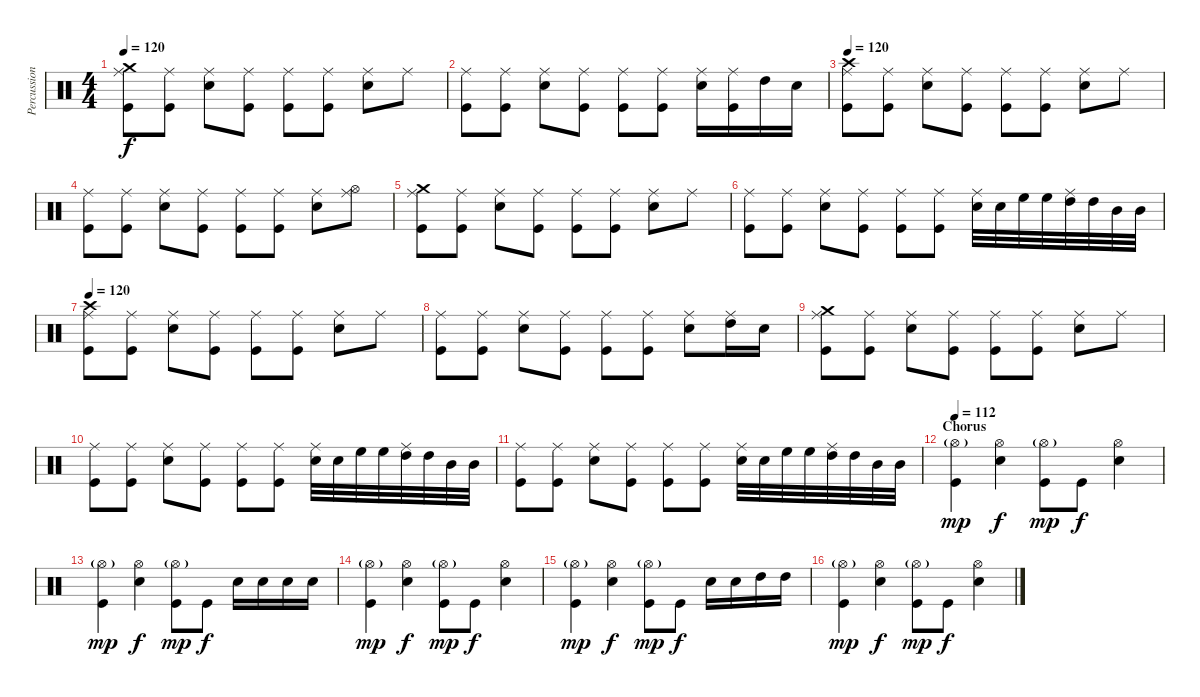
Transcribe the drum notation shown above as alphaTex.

\track ("Percussion" "Percussion") {instrument percussion}
\staff {score}
\articulation defaults
\ts (4 4)
\tempo 120
\clef neutral
\ks c
("Crash medium (hit)" "Ride (middle)" "Kick (hit)").8{dy f} ("Ride (middle)" "Kick (hit)").8 ("Ride (middle)" "Snare (hit) 2").8 ("Ride (middle)" "Kick (hit)").8 ("Ride (middle)" "Kick (hit)").8 ("Ride (middle)" "Kick (hit)").8 ("Ride (middle)" "Snare (hit) 2").8 "Ride (middle)".8 |
("Ride (middle)" "Kick (hit)").8 ("Ride (middle)" "Kick (hit)").8 ("Ride (middle)" "Snare (hit) 2").8 ("Ride (middle)" "Kick (hit)").8 ("Ride (middle)" "Kick (hit)").8 ("Ride (middle)" "Kick (hit)").8 ("Ride (middle)" "Snare (hit) 2").16 ("Ride (middle)" "Kick (hit)").16 "High Tom (hit)".16 "Snare (hit) 2".16 |
\tempo 120
("Crash high (hit)" "Ride (middle)" "Kick (hit)").8 ("Ride (middle)" "Kick (hit)").8 ("Ride (middle)" "Snare (hit) 2").8 ("Ride (middle)" "Kick (hit)").8 ("Ride (middle)" "Kick (hit)").8 ("Ride (middle)" "Kick (hit)").8 ("Ride (middle)" "Snare (hit) 2").8 "Ride (middle)".8 |
("Ride (middle)" "Kick (hit)").8 ("Ride (middle)" "Kick (hit)").8 ("Ride (middle)" "Snare (hit) 2").8 ("Ride (middle)" "Kick (hit)").8 ("Ride (middle)" "Kick (hit)").8 ("Ride (middle)" "Kick (hit)").8 ("Ride (middle)" "Snare (hit) 2").8 ("Ride (middle)" "Hi-Hat (open)").8 |
("Crash medium (hit)" "Ride (middle)" "Kick (hit)").8 ("Ride (middle)" "Kick (hit)").8 ("Ride (middle)" "Snare (hit) 2").8 ("Ride (middle)" "Kick (hit)").8 ("Ride (middle)" "Kick (hit)").8 ("Ride (middle)" "Kick (hit)").8 ("Ride (middle)" "Snare (hit) 2").8 "Ride (middle)".8 |
("Ride (middle)" "Kick (hit)").8 ("Ride (middle)" "Kick (hit)").8 ("Ride (middle)" "Snare (hit) 2").8 ("Ride (middle)" "Kick (hit)").8 ("Ride (middle)" "Kick (hit)").8 ("Ride (middle)" "Kick (hit)").8 ("Ride (middle)" "Snare (hit) 2").32 "Snare (hit) 2".32 "High Floor Tom (hit)".32 "High Floor Tom (hit)".32 ("Ride (middle)" "High Tom (hit)").32 "High Tom (hit)".32 "Mid Tom (hit)".32 "Mid Tom (hit)".32 |
\tempo 120
("Crash high (hit)" "Ride (middle)" "Kick (hit)").8 ("Ride (middle)" "Kick (hit)").8 ("Ride (middle)" "Snare (hit) 2").8 ("Ride (middle)" "Kick (hit)").8 ("Ride (middle)" "Kick (hit)").8 ("Ride (middle)" "Kick (hit)").8 ("Ride (middle)" "Snare (hit) 2").8 "Ride (middle)".8 |
("Ride (middle)" "Kick (hit)").8 ("Ride (middle)" "Kick (hit)").8 ("Ride (middle)" "Snare (hit) 2").8 ("Ride (middle)" "Kick (hit)").8 ("Ride (middle)" "Kick (hit)").8 ("Ride (middle)" "Kick (hit)").8 ("Ride (middle)" "Snare (hit) 2").8 ("Ride (middle)" "High Tom (hit)").16 "Snare (hit) 2".16 |
("Crash medium (hit)" "Ride (middle)" "Kick (hit)").8 ("Ride (middle)" "Kick (hit)").8 ("Ride (middle)" "Snare (hit) 2").8 ("Ride (middle)" "Kick (hit)").8 ("Ride (middle)" "Kick (hit)").8 ("Ride (middle)" "Kick (hit)").8 ("Ride (middle)" "Snare (hit) 2").8 "Ride (middle)".8 |
("Ride (middle)" "Kick (hit)").8 ("Ride (middle)" "Kick (hit)").8 ("Ride (middle)" "Snare (hit) 2").8 ("Ride (middle)" "Kick (hit)").8 ("Ride (middle)" "Kick (hit)").8 ("Ride (middle)" "Kick (hit)").8 ("Ride (middle)" "Snare (hit) 2").32 "Snare (hit) 2".32 "High Floor Tom (hit)".32 "High Floor Tom (hit)".32 ("Ride (middle)" "High Tom (hit)").32 "High Tom (hit)".32 "Mid Tom (hit)".32 "Mid Tom (hit)".32 |
("Ride (middle)" "Kick (hit)").8 ("Ride (middle)" "Kick (hit)").8 ("Ride (middle)" "Snare (hit) 2").8 ("Ride (middle)" "Kick (hit)").8 ("Ride (middle)" "Kick (hit)").8 ("Ride (middle)" "Kick (hit)").8 ("Ride (middle)" "Snare (hit) 2").32 "Snare (hit) 2".32 "High Floor Tom (hit)".32 "High Floor Tom (hit)".32 ("Ride (middle)" "High Tom (hit)").32 "High Tom (hit)".32 "Mid Tom (hit)".32 "Mid Tom (hit)".32 |
\section ("" "Chorus")
\tempo 112
("Hi-Hat (open)"{g} "Kick (hit)").4{dy mp} ("Hi-Hat (open)" "Snare (hit) 2").4{dy f} ("Hi-Hat (open)"{g} "Kick (hit)").8{dy mp} "Kick (hit)".8{dy f} ("Hi-Hat (open)" "Snare (hit) 2").4 |
("Hi-Hat (open)"{g} "Kick (hit)").4{dy mp} ("Hi-Hat (open)" "Snare (hit) 2").4{dy f} ("Hi-Hat (open)"{g} "Kick (hit)").8{dy mp} "Kick (hit)".8{dy f} "Snare (hit) 2".16 "Snare (hit) 2".16 "Snare (hit) 2".16 "Snare (hit) 2".16 |
("Hi-Hat (open)"{g} "Kick (hit)").4{dy mp} ("Hi-Hat (open)" "Snare (hit) 2").4{dy f} ("Hi-Hat (open)"{g} "Kick (hit)").8{dy mp} "Kick (hit)".8{dy f} ("Hi-Hat (open)" "Snare (hit) 2").4 |
("Hi-Hat (open)"{g} "Kick (hit)").4{dy mp} ("Hi-Hat (open)" "Snare (hit) 2").4{dy f} ("Hi-Hat (open)"{g} "Kick (hit)").8{dy mp} "Kick (hit)".8{dy f} "Snare (hit) 2".16 "Snare (hit) 2".16 "High Tom (hit)".16 "High Tom (hit)".16 |
("Hi-Hat (open)"{g} "Kick (hit)").4{dy mp} ("Hi-Hat (open)" "Snare (hit) 2").4{dy f} ("Hi-Hat (open)"{g} "Kick (hit)").8{dy mp} "Kick (hit)".8{dy f} ("Hi-Hat (open)" "Snare (hit) 2").4
